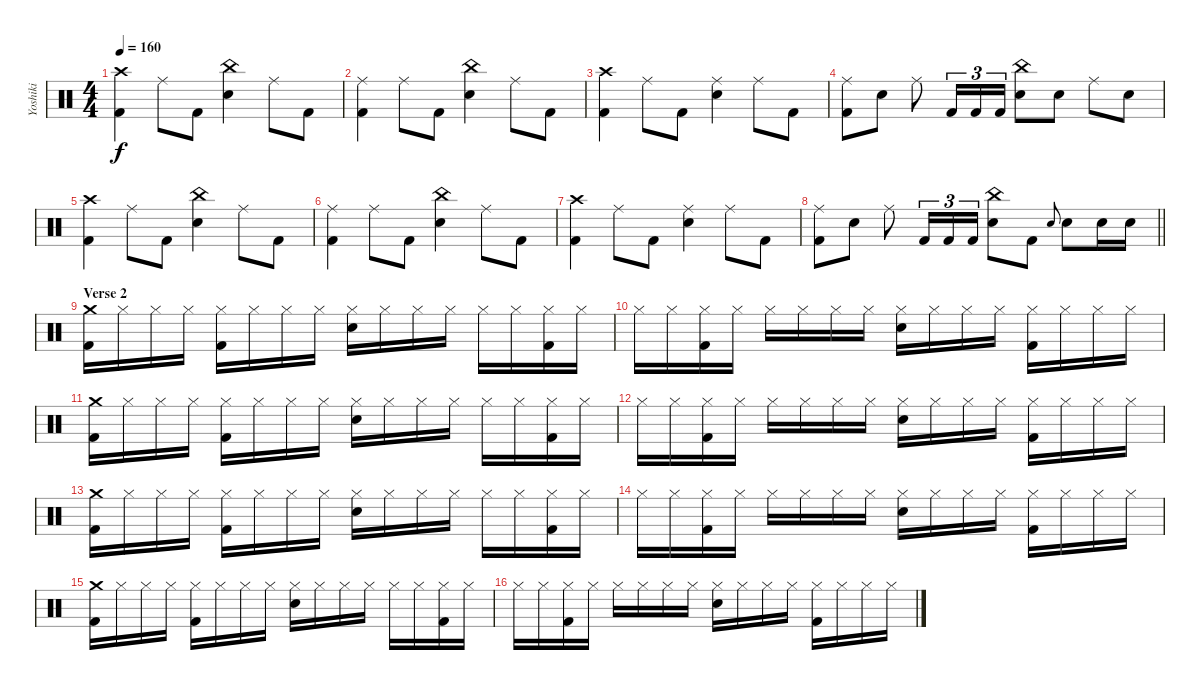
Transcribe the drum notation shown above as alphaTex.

\track ("Yoshiki" "Yoshiki") {instrument percussion}
\staff {score}
\articulation defaults
\ts (4 4)
\tempo 160
\clef neutral
\ks c
("Crash high (hit)" "Kick (hit) 2").4{dy f} "Ride (middle)".8 "Kick (hit) 2".8 ("China (hit)" "Snare (hit) 2").4 "Ride (middle)".8 "Kick (hit) 2".8 |
("Ride (middle)" "Kick (hit) 2").4 "Ride (middle)".8 "Kick (hit) 2".8 ("China (hit)" "Snare (hit) 2").4 "Ride (middle)".8 "Kick (hit) 2".8 |
("Crash high (hit)" "Kick (hit) 2").4 "Ride (middle)".8 "Kick (hit) 2".8 ("Ride (middle)" "Snare (hit) 2").4 "Ride (middle)".8 "Kick (hit) 2".8 |
("Ride (middle)" "Kick (hit) 2").8 "Snare (hit) 2".8 "Ride (middle)".8 "Kick (hit) 2".16{tu (3 2)} "Kick (hit) 2".16{tu (3 2)} "Kick (hit) 2".16{tu (3 2)} ("China (hit)" "Snare (hit) 2").8 "Snare (hit) 2".8 "Ride (middle)".8 "Snare (hit) 2".8 |
("Crash high (hit)" "Kick (hit) 2").4 "Ride (middle)".8 "Kick (hit) 2".8 ("China (hit)" "Snare (hit) 2").4 "Ride (middle)".8 "Kick (hit) 2".8 |
("Ride (middle)" "Kick (hit) 2").4 "Ride (middle)".8 "Kick (hit) 2".8 ("China (hit)" "Snare (hit) 2").4 "Ride (middle)".8 "Kick (hit) 2".8 |
("Crash high (hit)" "Kick (hit) 2").4 "Ride (middle)".8 "Kick (hit) 2".8 ("Ride (middle)" "Snare (hit) 2").4 "Ride (middle)".8 "Kick (hit) 2".8 |
\barLineRight lightlight
("Ride (middle)" "Kick (hit) 2").8 "Snare (hit) 2".8 "Ride (middle)".8 "Kick (hit) 2".16{tu (3 2)} "Kick (hit) 2".16{tu (3 2)} "Kick (hit) 2".16{tu (3 2)} ("China (hit)" "Snare (hit) 2").8 "Kick (hit) 2".8 "Snare (hit) 2".8{gr onbeat} "Snare (hit) 2".8 "Snare (hit) 2".16 "Snare (hit) 2".16 |
\section ("" "Verse 2")
("Crash medium (hit)" "Kick (hit) 2").16 "Hi-Hat (closed)".16 "Hi-Hat (closed)".16 "Hi-Hat (closed)".16 ("Hi-Hat (closed)" "Kick (hit) 2").16 "Hi-Hat (closed)".16 "Hi-Hat (closed)".16 "Hi-Hat (closed)".16 ("Hi-Hat (closed)" "Snare (hit) 2").16 "Hi-Hat (closed)".16 "Hi-Hat (closed)".16 "Hi-Hat (closed)".16 "Hi-Hat (closed)".16 "Hi-Hat (closed)".16 ("Hi-Hat (closed)" "Kick (hit) 2").16 "Hi-Hat (closed)".16 |
"Hi-Hat (closed)".16 "Hi-Hat (closed)".16 ("Hi-Hat (closed)" "Kick (hit) 2").16 "Hi-Hat (closed)".16 "Hi-Hat (closed)".16 "Hi-Hat (closed)".16 "Hi-Hat (closed)".16 "Hi-Hat (closed)".16 ("Hi-Hat (closed)" "Snare (hit) 2").16 "Hi-Hat (closed)".16 "Hi-Hat (closed)".16 "Hi-Hat (closed)".16 ("Hi-Hat (closed)" "Kick (hit) 2").16 "Hi-Hat (closed)".16 "Hi-Hat (closed)".16 "Hi-Hat (closed)".16 |
("Crash medium (hit)" "Kick (hit) 2").16 "Hi-Hat (closed)".16 "Hi-Hat (closed)".16 "Hi-Hat (closed)".16 ("Hi-Hat (closed)" "Kick (hit) 2").16 "Hi-Hat (closed)".16 "Hi-Hat (closed)".16 "Hi-Hat (closed)".16 ("Hi-Hat (closed)" "Snare (hit) 2").16 "Hi-Hat (closed)".16 "Hi-Hat (closed)".16 "Hi-Hat (closed)".16 "Hi-Hat (closed)".16 "Hi-Hat (closed)".16 ("Hi-Hat (closed)" "Kick (hit) 2").16 "Hi-Hat (closed)".16 |
"Hi-Hat (closed)".16 "Hi-Hat (closed)".16 ("Hi-Hat (closed)" "Kick (hit) 2").16 "Hi-Hat (closed)".16 "Hi-Hat (closed)".16 "Hi-Hat (closed)".16 "Hi-Hat (closed)".16 "Hi-Hat (closed)".16 ("Hi-Hat (closed)" "Snare (hit) 2").16 "Hi-Hat (closed)".16 "Hi-Hat (closed)".16 "Hi-Hat (closed)".16 ("Hi-Hat (closed)" "Kick (hit) 2").16 "Hi-Hat (closed)".16 "Hi-Hat (closed)".16 "Hi-Hat (closed)".16 |
("Crash medium (hit)" "Kick (hit) 2").16 "Hi-Hat (closed)".16 "Hi-Hat (closed)".16 "Hi-Hat (closed)".16 ("Hi-Hat (closed)" "Kick (hit) 2").16 "Hi-Hat (closed)".16 "Hi-Hat (closed)".16 "Hi-Hat (closed)".16 ("Hi-Hat (closed)" "Snare (hit) 2").16 "Hi-Hat (closed)".16 "Hi-Hat (closed)".16 "Hi-Hat (closed)".16 "Hi-Hat (closed)".16 "Hi-Hat (closed)".16 ("Hi-Hat (closed)" "Kick (hit) 2").16 "Hi-Hat (closed)".16 |
"Hi-Hat (closed)".16 "Hi-Hat (closed)".16 ("Hi-Hat (closed)" "Kick (hit) 2").16 "Hi-Hat (closed)".16 "Hi-Hat (closed)".16 "Hi-Hat (closed)".16 "Hi-Hat (closed)".16 "Hi-Hat (closed)".16 ("Hi-Hat (closed)" "Snare (hit) 2").16 "Hi-Hat (closed)".16 "Hi-Hat (closed)".16 "Hi-Hat (closed)".16 ("Hi-Hat (closed)" "Kick (hit) 2").16 "Hi-Hat (closed)".16 "Hi-Hat (closed)".16 "Hi-Hat (closed)".16 |
("Crash medium (hit)" "Kick (hit) 2").16 "Hi-Hat (closed)".16 "Hi-Hat (closed)".16 "Hi-Hat (closed)".16 ("Hi-Hat (closed)" "Kick (hit) 2").16 "Hi-Hat (closed)".16 "Hi-Hat (closed)".16 "Hi-Hat (closed)".16 ("Hi-Hat (closed)" "Snare (hit) 2").16 "Hi-Hat (closed)".16 "Hi-Hat (closed)".16 "Hi-Hat (closed)".16 "Hi-Hat (closed)".16 "Hi-Hat (closed)".16 ("Hi-Hat (closed)" "Kick (hit) 2").16 "Hi-Hat (closed)".16 |
"Hi-Hat (closed)".16 "Hi-Hat (closed)".16 ("Hi-Hat (closed)" "Kick (hit) 2").16 "Hi-Hat (closed)".16 "Hi-Hat (closed)".16 "Hi-Hat (closed)".16 "Hi-Hat (closed)".16 "Hi-Hat (closed)".16 ("Hi-Hat (closed)" "Snare (hit) 2").16 "Hi-Hat (closed)".16 "Hi-Hat (closed)".16 "Hi-Hat (closed)".16 ("Hi-Hat (closed)" "Kick (hit) 2").16 "Hi-Hat (closed)".16 "Hi-Hat (closed)".16 "Hi-Hat (closed)".16
